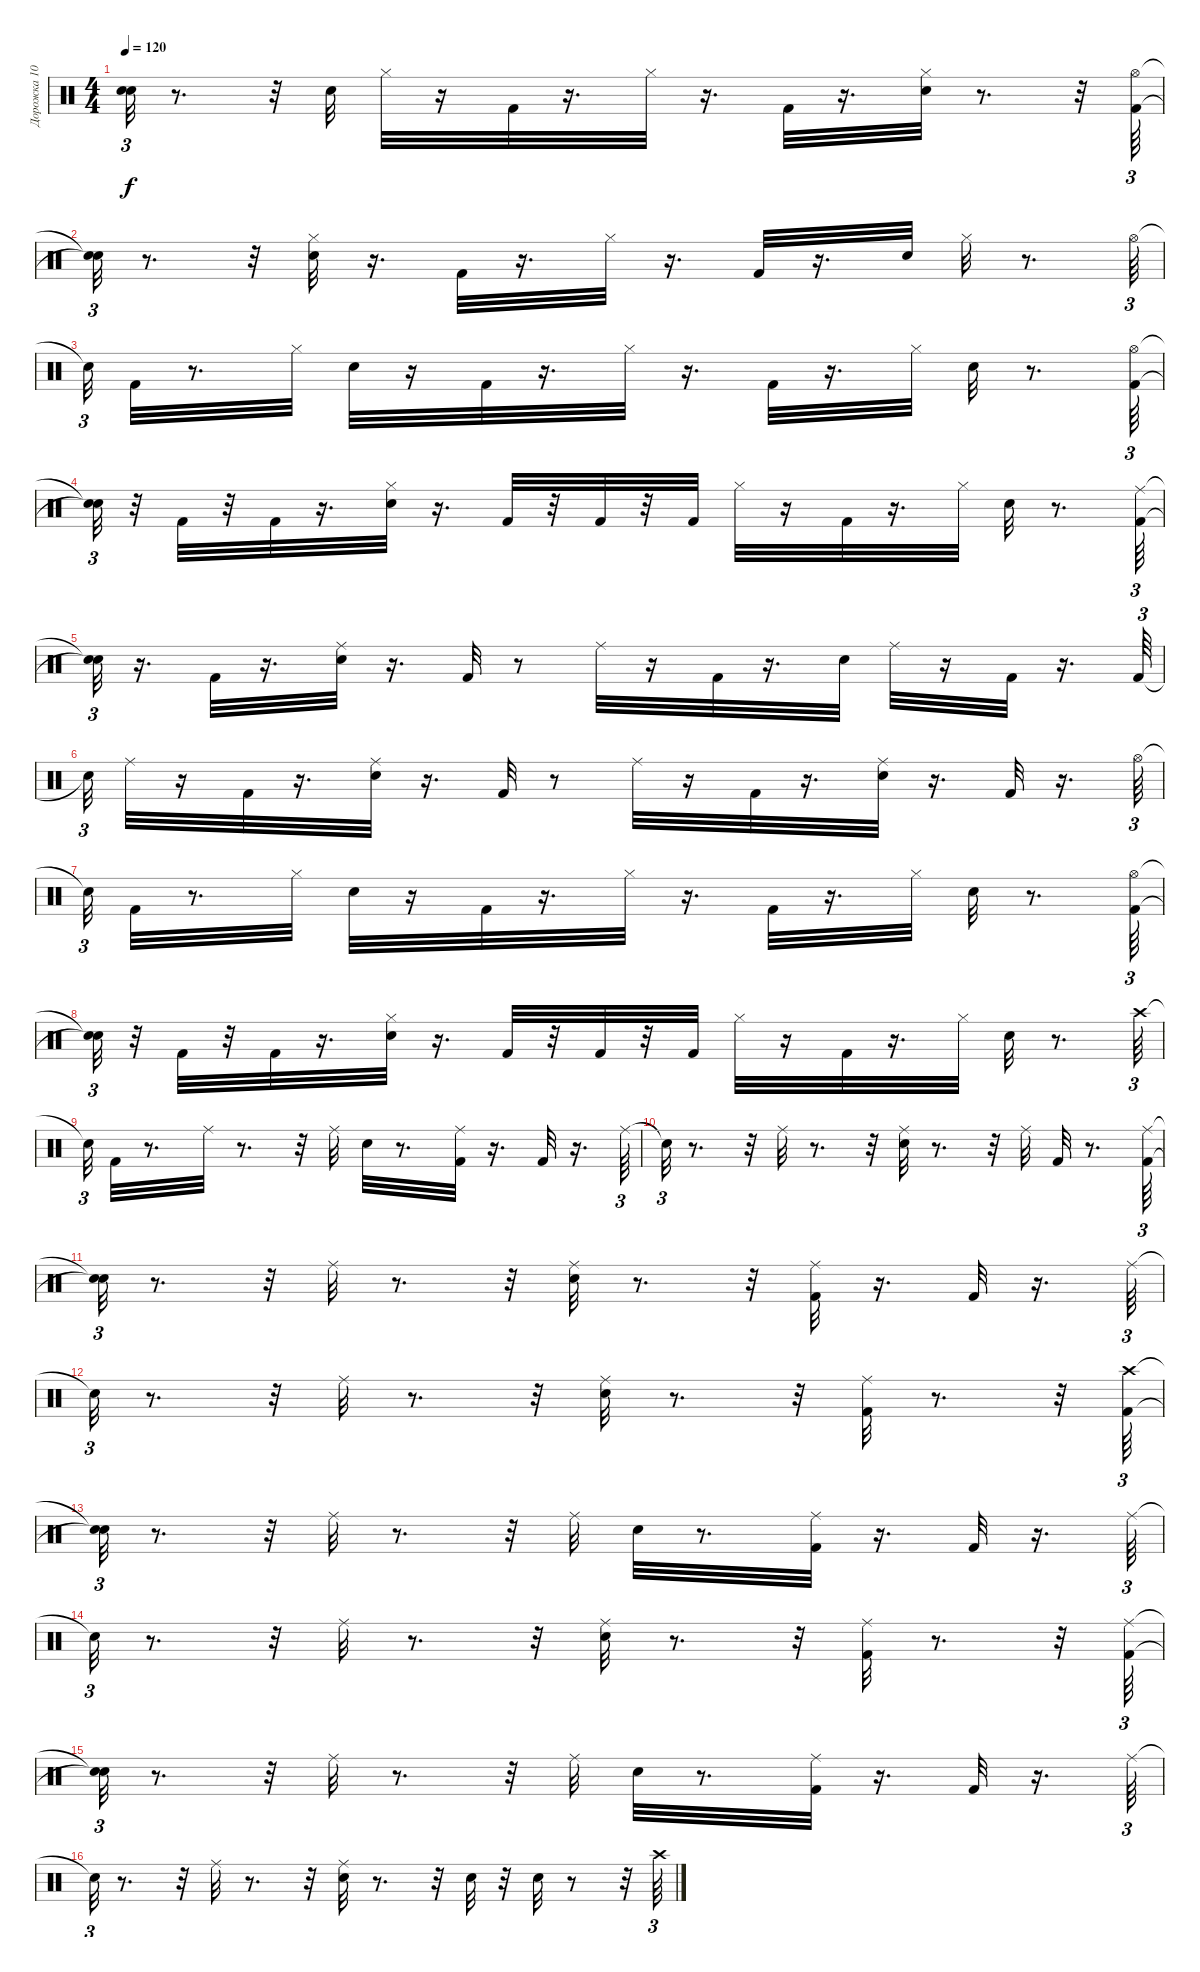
\track ("Дорожка 10" "Дорожка 10") {instrument percussion}
\staff {score}
\articulation defaults
\ts (4 4)
\tempo 120
\clef neutral
\ks c
("Snare (hit)"{t} "Snare (hit)"{t}).32{tu (3 2) dy f} r.8{d} r.32 "Snare (hit) 2".32 "Hi-Hat (closed)".32 r.16 "Kick (hit) 2".32 r.16{d} "Hi-Hat (closed)".32 r.16{d} "Kick (hit) 2".32 r.16{d} ("Snare (hit) 2" "Hi-Hat (closed)").32 r.8{d} r.32 ("Kick (hit) 2" "Hi-Hat (open)").64{tu (3 2)} |
("Snare (hit)"{t} "Snare (hit)"{t}).32{tu (3 2)} r.8{d} r.32 ("Hi-Hat (closed)" "Snare (hit) 2").32 r.16{d} "Kick (hit) 2".32 r.16{d} "Hi-Hat (closed)".32 r.16{d} "Kick (hit) 2".32 r.16{d} "Snare (hit) 2".32 "Hi-Hat (closed)".32 r.8{d} "Hi-Hat (open)".64{tu (3 2)} |
"Snare (hit)"{t}.32{tu (3 2)} "Kick (hit) 2".32 r.8{d} "Hi-Hat (closed)".32 "Snare (hit) 2".32 r.16 "Kick (hit) 2".32 r.16{d} "Hi-Hat (closed)".32 r.16{d} "Kick (hit) 2".32 r.16{d} "Hi-Hat (closed)".32 "Snare (hit) 2".32 r.8{d} ("Hi-Hat (open)" "Kick (hit) 2").64{tu (3 2)} |
("Snare (hit)"{t} "Snare (hit)"{t}).32{tu (3 2)} r.32 "Kick (hit) 2".32 r.32 "Kick (hit) 2".32 r.16{d} ("Snare (hit) 2" "Hi-Hat (closed)").32 r.16{d} "Kick (hit) 2".32 r.32 "Kick (hit) 2".32 r.32 "Kick (hit) 2".32 "Hi-Hat (closed)".32 r.16 "Kick (hit) 2".32 r.16{d} "Hi-Hat (closed)".32 "Snare (hit) 2".32 r.8{d} ("Ride (middle)" "Kick (hit) 2").64{tu (3 2)} |
("Snare (hit)"{t} "Snare (hit)"{t}).32{tu (3 2)} r.16{d} "Kick (hit) 2".32 r.16{d} ("Snare (hit) 2" "Ride (middle)").32 r.16{d} "Kick (hit) 2".32 r.8 "Ride (middle)".32 r.16 "Kick (hit) 2".32 r.16{d} "Snare (hit) 2".32 "Ride (middle)".32 r.16 "Kick (hit) 2".32 r.16{d} "Kick (hit) 2".64{tu (3 2)} |
"Snare (hit)"{t}.32{tu (3 2)} "Ride (middle)".32 r.16 "Kick (hit) 2".32 r.16{d} ("Snare (hit) 2" "Ride (middle)").32 r.16{d} "Kick (hit) 2".32 r.8 "Ride (middle)".32 r.16 "Kick (hit) 2".32 r.16{d} ("Snare (hit) 2" "Ride (middle)").32 r.16{d} "Kick (hit) 2".32 r.16{d} "Hi-Hat (open)".64{tu (3 2)} |
"Snare (hit)"{t}.32{tu (3 2)} "Kick (hit) 2".32 r.8{d} "Hi-Hat (closed)".32 "Snare (hit) 2".32 r.16 "Kick (hit) 2".32 r.16{d} "Hi-Hat (closed)".32 r.16{d} "Kick (hit) 2".32 r.16{d} "Hi-Hat (closed)".32 "Snare (hit) 2".32 r.8{d} ("Hi-Hat (open)" "Kick (hit) 2").64{tu (3 2)} |
("Snare (hit)"{t} "Snare (hit)"{t}).32{tu (3 2)} r.32 "Kick (hit) 2".32 r.32 "Kick (hit) 2".32 r.16{d} ("Snare (hit) 2" "Hi-Hat (closed)").32 r.16{d} "Kick (hit) 2".32 r.32 "Kick (hit) 2".32 r.32 "Kick (hit) 2".32 "Hi-Hat (closed)".32 r.16 "Kick (hit) 2".32 r.16{d} "Hi-Hat (closed)".32 "Snare (hit) 2".32 r.8{d} "Crash high (hit)".64{tu (3 2)} |
"Snare (hit)"{t}.32{tu (3 2)} "Kick (hit) 2".32 r.8{d} "Ride (middle)".32 r.8{d} r.32 "Ride (middle)".32 "Snare (hit) 2".32 r.8{d} ("Ride (middle)" "Kick (hit) 2").32 r.16{d} "Kick (hit) 2".32 r.16{d} "Ride (middle)".64{tu (3 2)} |
"Snare (hit)"{t}.32{tu (3 2)} r.8{d} r.32 "Ride (middle)".32 r.8{d} r.32 ("Snare (hit) 2" "Ride (middle)").32 r.8{d} r.32 "Ride (middle)".32 "Kick (hit) 2".32 r.8{d} ("Ride (middle)" "Kick (hit) 2").64{tu (3 2)} |
("Snare (hit)"{t} "Snare (hit)"{t}).32{tu (3 2)} r.8{d} r.32 "Ride (middle)".32 r.8{d} r.32 ("Snare (hit) 2" "Ride (middle)").32 r.8{d} r.32 ("Kick (hit) 2" "Ride (middle)").32 r.16{d} "Kick (hit) 2".32 r.16{d} "Ride (middle)".64{tu (3 2)} |
"Snare (hit)"{t}.32{tu (3 2)} r.8{d} r.32 "Ride (middle)".32 r.8{d} r.32 ("Snare (hit) 2" "Ride (middle)").32 r.8{d} r.32 ("Ride (middle)" "Kick (hit) 2").32 r.8{d} r.32 ("Crash high (hit)" "Kick (hit) 2").64{tu (3 2)} |
("Snare (hit)"{t} "Snare (hit)"{t}).32{tu (3 2)} r.8{d} r.32 "Ride (middle)".32 r.8{d} r.32 "Ride (middle)".32 "Snare (hit) 2".32 r.8{d} ("Ride (middle)" "Kick (hit) 2").32 r.16{d} "Kick (hit) 2".32 r.16{d} "Ride (middle)".64{tu (3 2)} |
"Snare (hit)"{t}.32{tu (3 2)} r.8{d} r.32 "Ride (middle)".32 r.8{d} r.32 ("Ride (middle)" "Snare (hit) 2").32 r.8{d} r.32 ("Ride (middle)" "Kick (hit) 2").32 r.8{d} r.32 ("Ride (middle)" "Kick (hit) 2").64{tu (3 2)} |
("Snare (hit)"{t} "Snare (hit)"{t}).32{tu (3 2)} r.8{d} r.32 "Ride (middle)".32 r.8{d} r.32 "Ride (middle)".32 "Snare (hit) 2".32 r.8{d} ("Ride (middle)" "Kick (hit) 2").32 r.16{d} "Kick (hit) 2".32 r.16{d} "Ride (middle)".64{tu (3 2)} |
"Snare (hit)"{t}.32{tu (3 2)} r.8{d} r.32 "Ride (middle)".32 r.8{d} r.32 ("Ride (middle)" "Snare (hit) 2").32 r.8{d} r.32 "Snare (hit) 2".32 r.32 "Snare (hit) 2".32 r.8 r.32 "Crash high (hit)".64{tu (3 2)}
